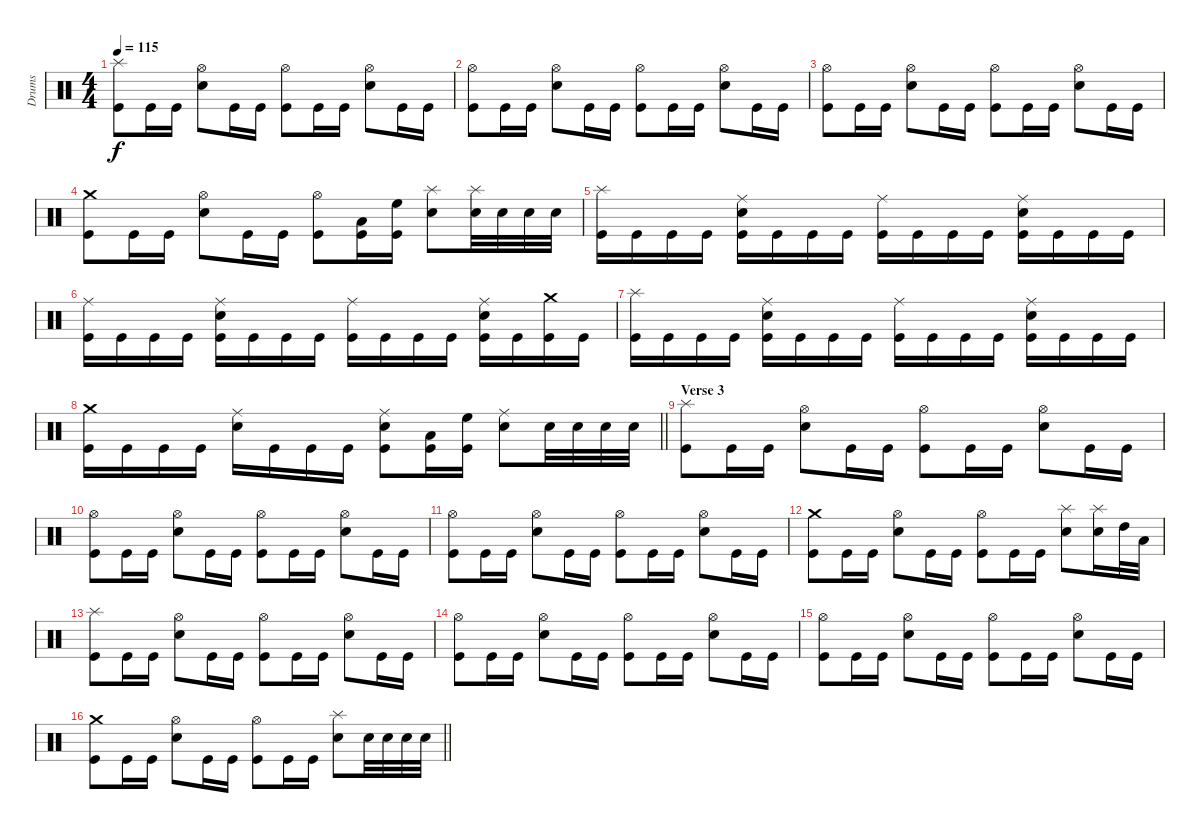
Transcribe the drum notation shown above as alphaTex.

\track ("Drums" "Drums") {instrument percussion}
\staff {score}
\articulation defaults
\ts (4 4)
\tempo 115
\clef neutral
\ks c
("Splash (hit)" "Kick (hit)").8{dy f} "Kick (hit)".16 "Kick (hit)".16 ("Hi-Hat (open)" "Snare (hit) 2").8 "Kick (hit)".16 "Kick (hit)".16 ("Hi-Hat (open)" "Kick (hit)").8 "Kick (hit)".16 "Kick (hit)".16 ("Hi-Hat (open)" "Snare (hit) 2").8 "Kick (hit)".16 "Kick (hit)".16 |
("Hi-Hat (open)" "Kick (hit)").8 "Kick (hit)".16 "Kick (hit)".16 ("Hi-Hat (open)" "Snare (hit) 2").8 "Kick (hit)".16 "Kick (hit)".16 ("Hi-Hat (open)" "Kick (hit)").8 "Kick (hit)".16 "Kick (hit)".16 ("Hi-Hat (open)" "Snare (hit) 2").8 "Kick (hit)".16 "Kick (hit)".16 |
("Hi-Hat (open)" "Kick (hit)").8 "Kick (hit)".16 "Kick (hit)".16 ("Hi-Hat (open)" "Snare (hit) 2").8 "Kick (hit)".16 "Kick (hit)".16 ("Hi-Hat (open)" "Kick (hit)").8 "Kick (hit)".16 "Kick (hit)".16 ("Hi-Hat (open)" "Snare (hit) 2").8 "Kick (hit)".16 "Kick (hit)".16 |
("Crash medium (hit)" "Kick (hit)").8 "Kick (hit)".16 "Kick (hit)".16 ("Hi-Hat (open)" "Snare (hit) 2").8 "Kick (hit)".16 "Kick (hit)".16 ("Hi-Hat (open)" "Kick (hit)").8 ("Low Tom (hit)" "Kick (hit)").16 ("High Floor Tom (hit)" "Kick (hit)").16 ("Splash (hit)" "Snare (hit) 2").8 ("Splash (hit)" "Snare (hit) 2").32 "Snare (hit) 2".32 "Snare (hit) 2".32 "Snare (hit) 2".32 |
("Splash (hit)" "Kick (hit)").16 "Kick (hit)".16 "Kick (hit)".16 "Kick (hit)".16 ("Ride (middle)" "Snare (hit) 2" "Kick (hit)").16 "Kick (hit)".16 "Kick (hit)".16 "Kick (hit)".16 ("Ride (middle)" "Kick (hit)").16 "Kick (hit)".16 "Kick (hit)".16 "Kick (hit)".16 ("Ride (middle)" "Snare (hit) 2" "Kick (hit)").16 "Kick (hit)".16 "Kick (hit)".16 "Kick (hit)".16 |
("Ride (middle)" "Kick (hit)").16 "Kick (hit)".16 "Kick (hit)".16 "Kick (hit)".16 ("Ride (middle)" "Snare (hit) 2" "Kick (hit)").16 "Kick (hit)".16 "Kick (hit)".16 "Kick (hit)".16 ("Ride (middle)" "Kick (hit)").16 "Kick (hit)".16 "Kick (hit)".16 "Kick (hit)".16 ("Ride (middle)" "Snare (hit) 2" "Kick (hit)").16 "Kick (hit)".16 ("Crash medium (hit)" "Kick (hit)").16 "Kick (hit)".16 |
("Splash (hit)" "Kick (hit)").16 "Kick (hit)".16 "Kick (hit)".16 "Kick (hit)".16 ("Ride (middle)" "Snare (hit) 2" "Kick (hit)").16 "Kick (hit)".16 "Kick (hit)".16 "Kick (hit)".16 ("Ride (middle)" "Kick (hit)").16 "Kick (hit)".16 "Kick (hit)".16 "Kick (hit)".16 ("Ride (middle)" "Snare (hit) 2" "Kick (hit)").16 "Kick (hit)".16 "Kick (hit)".16 "Kick (hit)".16 |
\barLineRight lightlight
("Crash medium (hit)" "Kick (hit)").16 "Kick (hit)".16 "Kick (hit)".16 "Kick (hit)".16 ("Ride (middle)" "Snare (hit) 2").16 "Kick (hit)".16 "Kick (hit)".16 "Kick (hit)".16 ("Ride (middle)" "Snare (hit) 2" "Kick (hit)").8 ("Low Tom (hit)" "Kick (hit)").16 ("High Floor Tom (hit)" "Kick (hit)").16 ("Ride (middle)" "Snare (hit) 2").8 "Snare (hit) 2".32 "Snare (hit) 2".32 "Snare (hit) 2".32 "Snare (hit) 2".32 |
\section ("" "Verse 3")
("Splash (hit)" "Kick (hit)").8 "Kick (hit)".16 "Kick (hit)".16 ("Hi-Hat (open)" "Snare (hit) 2").8 "Kick (hit)".16 "Kick (hit)".16 ("Hi-Hat (open)" "Kick (hit)").8 "Kick (hit)".16 "Kick (hit)".16 ("Hi-Hat (open)" "Snare (hit) 2").8 "Kick (hit)".16 "Kick (hit)".16 |
("Hi-Hat (open)" "Kick (hit)").8 "Kick (hit)".16 "Kick (hit)".16 ("Hi-Hat (open)" "Snare (hit) 2").8 "Kick (hit)".16 "Kick (hit)".16 ("Hi-Hat (open)" "Kick (hit)").8 "Kick (hit)".16 "Kick (hit)".16 ("Hi-Hat (open)" "Snare (hit) 2").8 "Kick (hit)".16 "Kick (hit)".16 |
("Hi-Hat (open)" "Kick (hit)").8 "Kick (hit)".16 "Kick (hit)".16 ("Hi-Hat (open)" "Snare (hit) 2").8 "Kick (hit)".16 "Kick (hit)".16 ("Hi-Hat (open)" "Kick (hit)").8 "Kick (hit)".16 "Kick (hit)".16 ("Hi-Hat (open)" "Snare (hit) 2").8 "Kick (hit)".16 "Kick (hit)".16 |
("Crash medium (hit)" "Kick (hit)").8 "Kick (hit)".16 "Kick (hit)".16 ("Hi-Hat (open)" "Snare (hit) 2").8 "Kick (hit)".16 "Kick (hit)".16 ("Hi-Hat (open)" "Kick (hit)").8 "Kick (hit)".16 "Kick (hit)".16 ("Splash (hit)" "Snare (hit) 2").8 ("Splash (hit)" "Snare (hit) 2").16 "High Tom (hit)".32 "Low Tom (hit)".32 |
("Splash (hit)" "Kick (hit)").8 "Kick (hit)".16 "Kick (hit)".16 ("Hi-Hat (open)" "Snare (hit) 2").8 "Kick (hit)".16 "Kick (hit)".16 ("Hi-Hat (open)" "Kick (hit)").8 "Kick (hit)".16 "Kick (hit)".16 ("Hi-Hat (open)" "Snare (hit) 2").8 "Kick (hit)".16 "Kick (hit)".16 |
("Hi-Hat (open)" "Kick (hit)").8 "Kick (hit)".16 "Kick (hit)".16 ("Hi-Hat (open)" "Snare (hit) 2").8 "Kick (hit)".16 "Kick (hit)".16 ("Hi-Hat (open)" "Kick (hit)").8 "Kick (hit)".16 "Kick (hit)".16 ("Hi-Hat (open)" "Snare (hit) 2").8 "Kick (hit)".16 "Kick (hit)".16 |
("Hi-Hat (open)" "Kick (hit)").8 "Kick (hit)".16 "Kick (hit)".16 ("Hi-Hat (open)" "Snare (hit) 2").8 "Kick (hit)".16 "Kick (hit)".16 ("Hi-Hat (open)" "Kick (hit)").8 "Kick (hit)".16 "Kick (hit)".16 ("Hi-Hat (open)" "Snare (hit) 2").8 "Kick (hit)".16 "Kick (hit)".16 |
\barLineRight lightlight
("Crash medium (hit)" "Kick (hit)").8 "Kick (hit)".16 "Kick (hit)".16 ("Hi-Hat (open)" "Snare (hit) 2").8 "Kick (hit)".16 "Kick (hit)".16 ("Hi-Hat (open)" "Kick (hit)").8 "Kick (hit)".16 "Kick (hit)".16 ("Splash (hit)" "Snare (hit) 2").8 "Snare (hit) 2".32 "Snare (hit) 2".32 "Snare (hit) 2".32 "Snare (hit) 2".32
